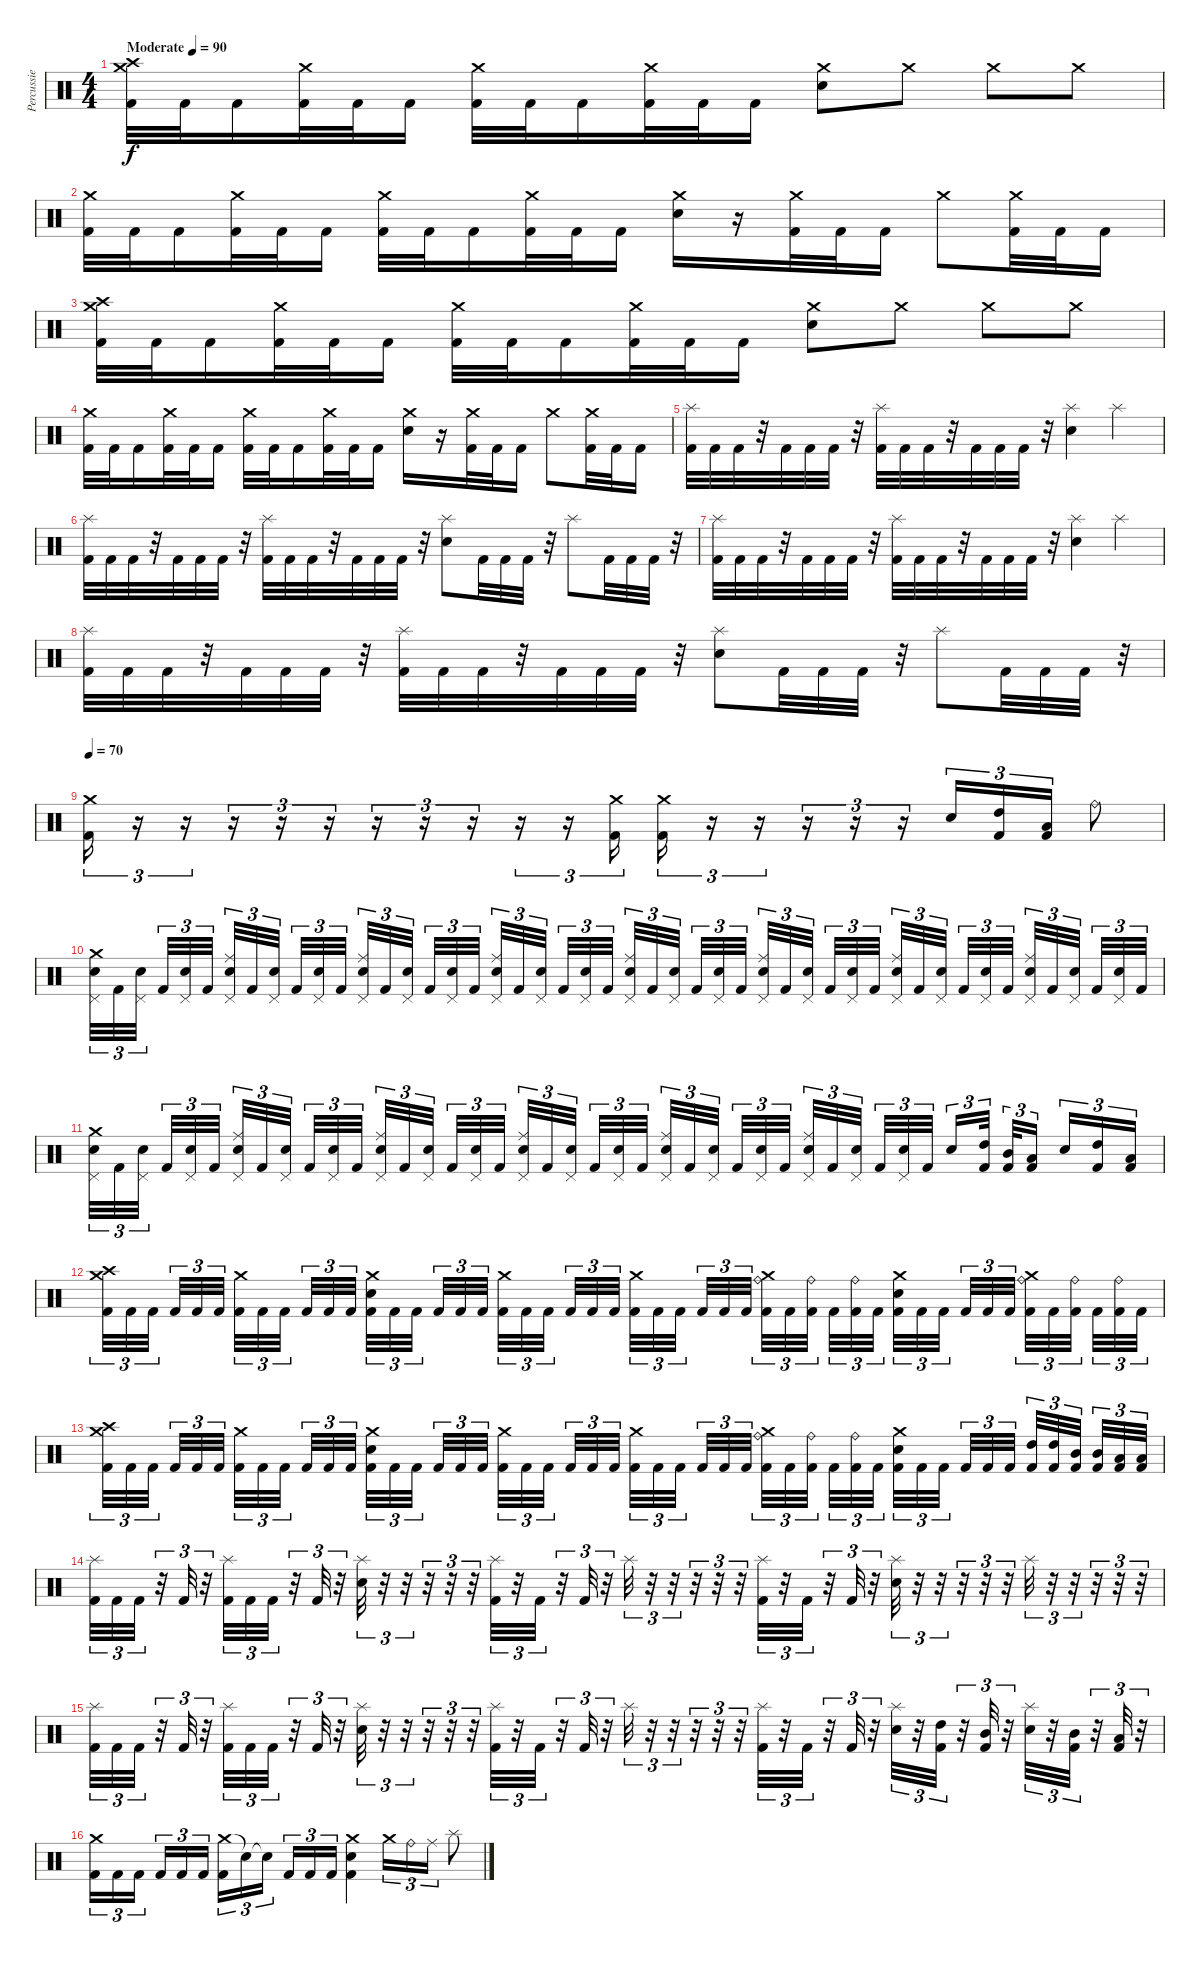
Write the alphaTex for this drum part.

\track ("Percussie" "Percussie") {instrument percussion}
\staff {score}
\articulation defaults
\ts (4 4)
\tempo (90 "Moderate")
\clef neutral
\ks c
("Crash high (hit)" "Crash medium (hit)" "Kick (hit) 2").32{dy f} "Kick (hit) 2".32 "Kick (hit) 2".16 ("Crash medium (hit)" "Kick (hit) 2").32 "Kick (hit) 2".32 "Kick (hit) 2".16 ("Crash medium (hit)" "Kick (hit) 2").32 "Kick (hit) 2".32 "Kick (hit) 2".16 ("Crash medium (hit)" "Kick (hit) 2").32 "Kick (hit) 2".32 "Kick (hit) 2".16 ("Crash medium (hit)" "Electric Snare (hit)").8 "Crash medium (hit)".8 "Crash medium (hit)".8 "Crash medium (hit)".8 |
("Crash medium (hit)" "Kick (hit) 2").32 "Kick (hit) 2".32 "Kick (hit) 2".16 ("Crash medium (hit)" "Kick (hit) 2").32 "Kick (hit) 2".32 "Kick (hit) 2".16 ("Crash medium (hit)" "Kick (hit) 2").32 "Kick (hit) 2".32 "Kick (hit) 2".16 ("Crash medium (hit)" "Kick (hit) 2").32 "Kick (hit) 2".32 "Kick (hit) 2".16 ("Crash medium (hit)" "Electric Snare (hit)").16 r.16 ("Crash medium (hit)" "Kick (hit) 2").32 "Kick (hit) 2".32 "Kick (hit) 2".16 "Crash medium (hit)".8 ("Crash medium (hit)" "Kick (hit) 2").32 "Kick (hit) 2".32 "Kick (hit) 2".16 |
("Crash high (hit)" "Crash medium (hit)" "Kick (hit) 2").32 "Kick (hit) 2".32 "Kick (hit) 2".16 ("Crash medium (hit)" "Kick (hit) 2").32 "Kick (hit) 2".32 "Kick (hit) 2".16 ("Crash medium (hit)" "Kick (hit) 2").32 "Kick (hit) 2".32 "Kick (hit) 2".16 ("Crash medium (hit)" "Kick (hit) 2").32 "Kick (hit) 2".32 "Kick (hit) 2".16 ("Crash medium (hit)" "Electric Snare (hit)").8 "Crash medium (hit)".8 "Crash medium (hit)".8 "Crash medium (hit)".8 |
("Crash medium (hit)" "Kick (hit) 2").32 "Kick (hit) 2".32 "Kick (hit) 2".16 ("Crash medium (hit)" "Kick (hit) 2").32 "Kick (hit) 2".32 "Kick (hit) 2".16 ("Crash medium (hit)" "Kick (hit) 2").32 "Kick (hit) 2".32 "Kick (hit) 2".16 ("Crash medium (hit)" "Kick (hit) 2").32 "Kick (hit) 2".32 "Kick (hit) 2".16 ("Crash medium (hit)" "Electric Snare (hit)").16 r.16 ("Crash medium (hit)" "Kick (hit) 2").32 "Kick (hit) 2".32 "Kick (hit) 2".16 "Crash medium (hit)".8 ("Crash medium (hit)" "Kick (hit) 2").32 "Kick (hit) 2".32 "Kick (hit) 2".16 |
("Splash (hit)" "Kick (hit) 2").32 "Kick (hit) 2".32 "Kick (hit) 2".32 r.32 "Kick (hit) 2".32 "Kick (hit) 2".32 "Kick (hit) 2".32 r.32 ("Splash (hit)" "Kick (hit) 2").32 "Kick (hit) 2".32 "Kick (hit) 2".32 r.32 "Kick (hit) 2".32 "Kick (hit) 2".32 "Kick (hit) 2".32 r.32 ("Splash (hit)" "Electric Snare (hit)").4 "Splash (hit)".4 |
("Splash (hit)" "Kick (hit) 2").32 "Kick (hit) 2".32 "Kick (hit) 2".32 r.32 "Kick (hit) 2".32 "Kick (hit) 2".32 "Kick (hit) 2".32 r.32 ("Splash (hit)" "Kick (hit) 2").32 "Kick (hit) 2".32 "Kick (hit) 2".32 r.32 "Kick (hit) 2".32 "Kick (hit) 2".32 "Kick (hit) 2".32 r.32 ("Splash (hit)" "Electric Snare (hit)").8 "Kick (hit) 2".32 "Kick (hit) 2".32 "Kick (hit) 2".32 r.32 "Splash (hit)".8 "Kick (hit) 2".32 "Kick (hit) 2".32 "Kick (hit) 2".32 r.32 |
("Splash (hit)" "Kick (hit) 2").32 "Kick (hit) 2".32 "Kick (hit) 2".32 r.32 "Kick (hit) 2".32 "Kick (hit) 2".32 "Kick (hit) 2".32 r.32 ("Splash (hit)" "Kick (hit) 2").32 "Kick (hit) 2".32 "Kick (hit) 2".32 r.32 "Kick (hit) 2".32 "Kick (hit) 2".32 "Kick (hit) 2".32 r.32 ("Splash (hit)" "Electric Snare (hit)").4 "Splash (hit)".4 |
("Splash (hit)" "Kick (hit) 2").32 "Kick (hit) 2".32 "Kick (hit) 2".32 r.32 "Kick (hit) 2".32 "Kick (hit) 2".32 "Kick (hit) 2".32 r.32 ("Splash (hit)" "Kick (hit) 2").32 "Kick (hit) 2".32 "Kick (hit) 2".32 r.32 "Kick (hit) 2".32 "Kick (hit) 2".32 "Kick (hit) 2".32 r.32 ("Splash (hit)" "Electric Snare (hit)").8 "Kick (hit) 2".32 "Kick (hit) 2".32 "Kick (hit) 2".32 r.32 "Splash (hit)".8 "Kick (hit) 2".32 "Kick (hit) 2".32 "Kick (hit) 2".32 r.32 |
\tempo 70
("Crash medium (hit)" "Kick (hit) 2").16{tu (3 2)} r.16{tu (3 2)} r.16{tu (3 2)} r.16{tu (3 2)} r.16{tu (3 2)} r.16{tu (3 2)} r.16{tu (3 2)} r.16{tu (3 2)} r.16{tu (3 2)} r.16{tu (3 2)} r.16{tu (3 2)} ("Crash medium (hit)" "Kick (hit) 2").16{tu (3 2)} ("Crash medium (hit)" "Kick (hit) 2").16{tu (3 2)} r.16{tu (3 2)} r.16{tu (3 2)} r.16{tu (3 2)} r.16{tu (3 2)} r.16{tu (3 2)} "Electric Snare (hit)".16{tu (3 2)} ("High Tom (hit)" "Kick (hit) 2").16{tu (3 2)} ("Low Tom (hit)" "Kick (hit) 2").16{tu (3 2)} "Ride (bell)".8 |
("Pedal Hi-Hat (hit)" "Crash medium (hit)" "Electric Snare (hit)").32{tu (3 2)} "Kick (hit) 2".32{tu (3 2)} ("Pedal Hi-Hat (hit)" "Electric Snare (hit)").32{tu (3 2) beam splitsecondary} "Kick (hit) 2".32{tu (3 2)} ("Pedal Hi-Hat (hit)" "Electric Snare (hit)").32{tu (3 2)} "Kick (hit) 2".32{tu (3 2) beam splitsecondary} ("Pedal Hi-Hat (hit)" "Ride (middle)" "Electric Snare (hit)").32{tu (3 2)} "Kick (hit) 2".32{tu (3 2)} ("Pedal Hi-Hat (hit)" "Electric Snare (hit)").32{tu (3 2) beam splitsecondary} "Kick (hit) 2".32{tu (3 2)} ("Pedal Hi-Hat (hit)" "Electric Snare (hit)").32{tu (3 2)} "Kick (hit) 2".32{tu (3 2)} ("Pedal Hi-Hat (hit)" "Ride (middle)" "Electric Snare (hit)").32{tu (3 2)} "Kick (hit) 2".32{tu (3 2)} ("Pedal Hi-Hat (hit)" "Electric Snare (hit)").32{tu (3 2) beam splitsecondary} "Kick (hit) 2".32{tu (3 2)} ("Pedal Hi-Hat (hit)" "Electric Snare (hit)").32{tu (3 2)} "Kick (hit) 2".32{tu (3 2) beam splitsecondary} ("Pedal Hi-Hat (hit)" "Ride (middle)" "Electric Snare (hit)").32{tu (3 2)} "Kick (hit) 2".32{tu (3 2)} ("Pedal Hi-Hat (hit)" "Electric Snare (hit)").32{tu (3 2) beam splitsecondary} "Kick (hit) 2".32{tu (3 2)} ("Pedal Hi-Hat (hit)" "Electric Snare (hit)").32{tu (3 2)} "Kick (hit) 2".32{tu (3 2)} ("Pedal Hi-Hat (hit)" "Ride (middle)" "Electric Snare (hit)").32{tu (3 2)} "Kick (hit) 2".32{tu (3 2)} ("Pedal Hi-Hat (hit)" "Electric Snare (hit)").32{tu (3 2) beam splitsecondary} "Kick (hit) 2".32{tu (3 2)} ("Pedal Hi-Hat (hit)" "Electric Snare (hit)").32{tu (3 2)} "Kick (hit) 2".32{tu (3 2) beam splitsecondary} ("Pedal Hi-Hat (hit)" "Ride (middle)" "Electric Snare (hit)").32{tu (3 2)} "Kick (hit) 2".32{tu (3 2)} ("Pedal Hi-Hat (hit)" "Electric Snare (hit)").32{tu (3 2) beam splitsecondary} "Kick (hit) 2".32{tu (3 2)} ("Pedal Hi-Hat (hit)" "Electric Snare (hit)").32{tu (3 2)} "Kick (hit) 2".32{tu (3 2)} ("Pedal Hi-Hat (hit)" "Ride (middle)" "Electric Snare (hit)").32{tu (3 2)} "Kick (hit) 2".32{tu (3 2)} ("Pedal Hi-Hat (hit)" "Electric Snare (hit)").32{tu (3 2) beam splitsecondary} "Kick (hit) 2".32{tu (3 2)} ("Pedal Hi-Hat (hit)" "Electric Snare (hit)").32{tu (3 2)} "Kick (hit) 2".32{tu (3 2) beam splitsecondary} ("Pedal Hi-Hat (hit)" "Ride (middle)" "Electric Snare (hit)").32{tu (3 2)} "Kick (hit) 2".32{tu (3 2)} ("Pedal Hi-Hat (hit)" "Electric Snare (hit)").32{tu (3 2) beam splitsecondary} "Kick (hit) 2".32{tu (3 2)} ("Pedal Hi-Hat (hit)" "Electric Snare (hit)").32{tu (3 2)} "Kick (hit) 2".32{tu (3 2)} |
("Pedal Hi-Hat (hit)" "Crash medium (hit)" "Electric Snare (hit)").32{tu (3 2)} "Kick (hit) 2".32{tu (3 2)} ("Pedal Hi-Hat (hit)" "Electric Snare (hit)").32{tu (3 2) beam splitsecondary} "Kick (hit) 2".32{tu (3 2)} ("Pedal Hi-Hat (hit)" "Electric Snare (hit)").32{tu (3 2)} "Kick (hit) 2".32{tu (3 2) beam splitsecondary} ("Pedal Hi-Hat (hit)" "Ride (middle)" "Electric Snare (hit)").32{tu (3 2)} "Kick (hit) 2".32{tu (3 2)} ("Pedal Hi-Hat (hit)" "Electric Snare (hit)").32{tu (3 2) beam splitsecondary} "Kick (hit) 2".32{tu (3 2)} ("Pedal Hi-Hat (hit)" "Electric Snare (hit)").32{tu (3 2)} "Kick (hit) 2".32{tu (3 2)} ("Pedal Hi-Hat (hit)" "Ride (middle)" "Electric Snare (hit)").32{tu (3 2)} "Kick (hit) 2".32{tu (3 2)} ("Pedal Hi-Hat (hit)" "Electric Snare (hit)").32{tu (3 2) beam splitsecondary} "Kick (hit) 2".32{tu (3 2)} ("Pedal Hi-Hat (hit)" "Electric Snare (hit)").32{tu (3 2)} "Kick (hit) 2".32{tu (3 2) beam splitsecondary} ("Pedal Hi-Hat (hit)" "Ride (middle)" "Electric Snare (hit)").32{tu (3 2)} "Kick (hit) 2".32{tu (3 2)} ("Pedal Hi-Hat (hit)" "Electric Snare (hit)").32{tu (3 2) beam splitsecondary} "Kick (hit) 2".32{tu (3 2)} ("Pedal Hi-Hat (hit)" "Electric Snare (hit)").32{tu (3 2)} "Kick (hit) 2".32{tu (3 2)} ("Pedal Hi-Hat (hit)" "Ride (middle)" "Electric Snare (hit)").32{tu (3 2)} "Kick (hit) 2".32{tu (3 2)} ("Pedal Hi-Hat (hit)" "Electric Snare (hit)").32{tu (3 2) beam splitsecondary} "Kick (hit) 2".32{tu (3 2)} ("Pedal Hi-Hat (hit)" "Electric Snare (hit)").32{tu (3 2)} "Kick (hit) 2".32{tu (3 2) beam splitsecondary} ("Pedal Hi-Hat (hit)" "Ride (middle)" "Electric Snare (hit)").32{tu (3 2)} "Kick (hit) 2".32{tu (3 2)} ("Pedal Hi-Hat (hit)" "Electric Snare (hit)").32{tu (3 2) beam splitsecondary} "Kick (hit) 2".32{tu (3 2)} ("Pedal Hi-Hat (hit)" "Electric Snare (hit)").32{tu (3 2)} "Kick (hit) 2".32{tu (3 2)} "Electric Snare (hit)".16{tu (3 2)} ("High Tom (hit)" "Kick (hit) 2").32{tu (3 2) beam splitsecondary} ("Mid Tom (hit)" "Kick (hit) 2").32{tu (3 2)} ("Low Tom (hit)" "Kick (hit) 2").16{tu (3 2) beam splitsecondary} "Electric Snare (hit)".16{tu (3 2)} ("High Tom (hit)" "Kick (hit) 2").16{tu (3 2)} ("Low Tom (hit)" "Kick (hit) 2").16{tu (3 2)} |
("Crash medium (hit)" "Crash high (hit)" "Kick (hit) 2").32{tu (3 2)} "Kick (hit) 2".32{tu (3 2)} "Kick (hit) 2".32{tu (3 2) beam splitsecondary} "Kick (hit) 2".32{tu (3 2)} "Kick (hit) 2".32{tu (3 2)} "Kick (hit) 2".32{tu (3 2) beam splitsecondary} ("Crash medium (hit)" "Kick (hit) 2").32{tu (3 2)} "Kick (hit) 2".32{tu (3 2)} "Kick (hit) 2".32{tu (3 2) beam splitsecondary} "Kick (hit) 2".32{tu (3 2)} "Kick (hit) 2".32{tu (3 2)} "Kick (hit) 2".32{tu (3 2)} ("Crash medium (hit)" "Electric Snare (hit)" "Kick (hit) 2").32{tu (3 2)} "Kick (hit) 2".32{tu (3 2)} "Kick (hit) 2".32{tu (3 2) beam splitsecondary} "Kick (hit) 2".32{tu (3 2)} "Kick (hit) 2".32{tu (3 2)} "Kick (hit) 2".32{tu (3 2) beam splitsecondary} ("Crash medium (hit)" "Kick (hit) 2").32{tu (3 2)} "Kick (hit) 2".32{tu (3 2)} "Kick (hit) 2".32{tu (3 2) beam splitsecondary} "Kick (hit) 2".32{tu (3 2)} "Kick (hit) 2".32{tu (3 2)} "Kick (hit) 2".32{tu (3 2)} ("Crash medium (hit)" "Kick (hit) 2").32{tu (3 2)} "Kick (hit) 2".32{tu (3 2)} "Kick (hit) 2".32{tu (3 2) beam splitsecondary} "Kick (hit) 2".32{tu (3 2)} "Kick (hit) 2".32{tu (3 2)} "Kick (hit) 2".32{tu (3 2) beam splitsecondary} ("Crash medium (hit)" "Ride (bell)" "Kick (hit) 2").32{tu (3 2)} "Kick (hit) 2".32{tu (3 2)} ("Ride (bell)" "Kick (hit) 2").32{tu (3 2) beam splitsecondary} "Kick (hit) 2".32{tu (3 2)} ("Ride (bell)" "Kick (hit) 2").32{tu (3 2)} "Kick (hit) 2".32{tu (3 2)} ("Crash medium (hit)" "Electric Snare (hit)" "Kick (hit) 2").32{tu (3 2)} "Kick (hit) 2".32{tu (3 2)} "Kick (hit) 2".32{tu (3 2) beam splitsecondary} "Kick (hit) 2".32{tu (3 2)} "Kick (hit) 2".32{tu (3 2)} "Kick (hit) 2".32{tu (3 2) beam splitsecondary} ("Crash medium (hit)" "Ride (bell)" "Kick (hit) 2").32{tu (3 2)} "Kick (hit) 2".32{tu (3 2)} ("Ride (bell)" "Kick (hit) 2").32{tu (3 2) beam splitsecondary} "Kick (hit) 2".32{tu (3 2)} ("Ride (bell)" "Kick (hit) 2").32{tu (3 2)} "Kick (hit) 2".32{tu (3 2)} |
("Crash medium (hit)" "Crash high (hit)" "Kick (hit) 2").32{tu (3 2)} "Kick (hit) 2".32{tu (3 2)} "Kick (hit) 2".32{tu (3 2) beam splitsecondary} "Kick (hit) 2".32{tu (3 2)} "Kick (hit) 2".32{tu (3 2)} "Kick (hit) 2".32{tu (3 2) beam splitsecondary} ("Crash medium (hit)" "Kick (hit) 2").32{tu (3 2)} "Kick (hit) 2".32{tu (3 2)} "Kick (hit) 2".32{tu (3 2) beam splitsecondary} "Kick (hit) 2".32{tu (3 2)} "Kick (hit) 2".32{tu (3 2)} "Kick (hit) 2".32{tu (3 2)} ("Crash medium (hit)" "Electric Snare (hit)" "Kick (hit) 2").32{tu (3 2)} "Kick (hit) 2".32{tu (3 2)} "Kick (hit) 2".32{tu (3 2) beam splitsecondary} "Kick (hit) 2".32{tu (3 2)} "Kick (hit) 2".32{tu (3 2)} "Kick (hit) 2".32{tu (3 2) beam splitsecondary} ("Crash medium (hit)" "Kick (hit) 2").32{tu (3 2)} "Kick (hit) 2".32{tu (3 2)} "Kick (hit) 2".32{tu (3 2) beam splitsecondary} "Kick (hit) 2".32{tu (3 2)} "Kick (hit) 2".32{tu (3 2)} "Kick (hit) 2".32{tu (3 2)} ("Crash medium (hit)" "Kick (hit) 2").32{tu (3 2)} "Kick (hit) 2".32{tu (3 2)} "Kick (hit) 2".32{tu (3 2) beam splitsecondary} "Kick (hit) 2".32{tu (3 2)} "Kick (hit) 2".32{tu (3 2)} "Kick (hit) 2".32{tu (3 2) beam splitsecondary} ("Crash medium (hit)" "Ride (bell)" "Kick (hit) 2").32{tu (3 2)} "Kick (hit) 2".32{tu (3 2)} ("Ride (bell)" "Kick (hit) 2").32{tu (3 2) beam splitsecondary} "Kick (hit) 2".32{tu (3 2)} ("Ride (bell)" "Kick (hit) 2").32{tu (3 2)} "Kick (hit) 2".32{tu (3 2)} ("Crash medium (hit)" "Electric Snare (hit)" "Kick (hit) 2").32{tu (3 2)} "Kick (hit) 2".32{tu (3 2)} "Kick (hit) 2".32{tu (3 2) beam splitsecondary} "Kick (hit) 2".32{tu (3 2)} "Kick (hit) 2".32{tu (3 2)} "Kick (hit) 2".32{tu (3 2) beam splitsecondary} ("High Tom (hit)" "Kick (hit) 2").32{tu (3 2)} ("High Tom (hit)" "Kick (hit) 2").32{tu (3 2)} ("Mid Tom (hit)" "Kick (hit) 2").32{tu (3 2) beam splitsecondary} ("Mid Tom (hit)" "Kick (hit) 2").32{tu (3 2)} ("Low Tom (hit)" "Kick (hit) 2").32{tu (3 2)} ("Low Tom (hit)" "Kick (hit) 2").32{tu (3 2)} |
("Splash (hit)" "Kick (hit) 2").32{tu (3 2)} "Kick (hit) 2".32{tu (3 2)} "Kick (hit) 2".32{tu (3 2)} r.32{tu (3 2)} "Kick (hit) 2".32{tu (3 2)} r.32{tu (3 2)} ("Splash (hit)" "Kick (hit) 2").32{tu (3 2)} "Kick (hit) 2".32{tu (3 2)} "Kick (hit) 2".32{tu (3 2)} r.32{tu (3 2)} "Kick (hit) 2".32{tu (3 2)} r.32{tu (3 2)} ("Splash (hit)" "Electric Snare (hit)").32{tu (3 2)} r.32{tu (3 2)} r.32{tu (3 2)} r.32{tu (3 2)} r.32{tu (3 2)} r.32{tu (3 2)} ("Splash (hit)" "Kick (hit) 2").32{tu (3 2)} r.32{tu (3 2)} "Kick (hit) 2".32{tu (3 2)} r.32{tu (3 2)} "Kick (hit) 2".32{tu (3 2)} r.32{tu (3 2)} "Splash (hit)".32{tu (3 2)} r.32{tu (3 2)} r.32{tu (3 2)} r.32{tu (3 2)} r.32{tu (3 2)} r.32{tu (3 2)} ("Splash (hit)" "Kick (hit) 2").32{tu (3 2)} r.32{tu (3 2)} "Kick (hit) 2".32{tu (3 2)} r.32{tu (3 2)} "Kick (hit) 2".32{tu (3 2)} r.32{tu (3 2)} ("Splash (hit)" "Electric Snare (hit)").32{tu (3 2)} r.32{tu (3 2)} r.32{tu (3 2)} r.32{tu (3 2)} r.32{tu (3 2)} r.32{tu (3 2)} "Splash (hit)".32{tu (3 2)} r.32{tu (3 2)} r.32{tu (3 2)} r.32{tu (3 2)} r.32{tu (3 2)} r.32{tu (3 2)} |
("Splash (hit)" "Kick (hit) 2").32{tu (3 2)} "Kick (hit) 2".32{tu (3 2)} "Kick (hit) 2".32{tu (3 2)} r.32{tu (3 2)} "Kick (hit) 2".32{tu (3 2)} r.32{tu (3 2)} ("Splash (hit)" "Kick (hit) 2").32{tu (3 2)} "Kick (hit) 2".32{tu (3 2)} "Kick (hit) 2".32{tu (3 2)} r.32{tu (3 2)} "Kick (hit) 2".32{tu (3 2)} r.32{tu (3 2)} ("Splash (hit)" "Electric Snare (hit)").32{tu (3 2)} r.32{tu (3 2)} r.32{tu (3 2)} r.32{tu (3 2)} r.32{tu (3 2)} r.32{tu (3 2)} ("Splash (hit)" "Kick (hit) 2").32{tu (3 2)} r.32{tu (3 2)} "Kick (hit) 2".32{tu (3 2)} r.32{tu (3 2)} "Kick (hit) 2".32{tu (3 2)} r.32{tu (3 2)} "Splash (hit)".32{tu (3 2)} r.32{tu (3 2)} r.32{tu (3 2)} r.32{tu (3 2)} r.32{tu (3 2)} r.32{tu (3 2)} ("Splash (hit)" "Kick (hit) 2").32{tu (3 2)} r.32{tu (3 2)} "Kick (hit) 2".32{tu (3 2)} r.32{tu (3 2)} "Kick (hit) 2".32{tu (3 2)} r.32{tu (3 2)} ("Splash (hit)" "Electric Snare (hit)").32{tu (3 2)} r.32{tu (3 2)} ("High Tom (hit)" "Kick (hit) 2").32{tu (3 2)} r.32{tu (3 2)} ("Mid Tom (hit)" "Kick (hit) 2").32{tu (3 2)} r.32{tu (3 2)} ("Splash (hit)" "Electric Snare (hit)").32{tu (3 2)} r.32{tu (3 2)} ("Mid Tom (hit)" "Kick (hit) 2").32{tu (3 2)} r.32{tu (3 2)} ("Low Tom (hit)" "Kick (hit) 2").32{tu (3 2)} r.32{tu (3 2)} |
("Crash medium (hit)" "Kick (hit) 2").16{tu (3 2)} "Kick (hit) 2".16{tu (3 2)} "Kick (hit) 2".16{tu (3 2) beam splitsecondary} "Kick (hit) 2".16{tu (3 2)} "Kick (hit) 2".16{tu (3 2)} "Kick (hit) 2".16{tu (3 2)} ("Crash medium (hit)" "Kick (hit) 2").16{tu (3 2)} "Snare (hit)"{t}.16{tu (3 2)} "Snare (hit)"{t}.16{tu (3 2) beam splitsecondary} "Kick (hit) 2".16{tu (3 2)} "Kick (hit) 2".16{tu (3 2)} "Kick (hit) 2".16{tu (3 2)} ("Crash medium (hit)" "Electric Snare (hit)" "Kick (hit) 2").4 "Crash medium (hit)".16{tu (3 2)} "Ride (bell)".16{tu (3 2)} "Ride (middle)".16{tu (3 2)} "Splash (hit)".8
